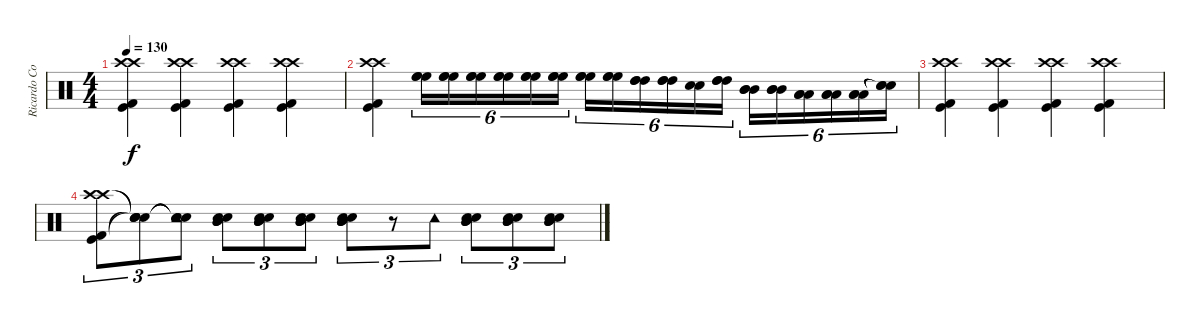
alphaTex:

\track ("Ricardo Confessori" "Ricardo Co") {instrument percussion}
\staff {score}
\articulation defaults
\ts (4 4)
\tempo 130
\clef neutral
\ks c
("Crash high (hit)" "Crash high (hit)" "Kick (hit)" "Kick (hit) 2").4{dy f} ("Crash high (hit)" "Crash high (hit)" "Kick (hit)" "Kick (hit) 2").4 ("Crash high (hit)" "Crash high (hit)" "Kick (hit)" "Kick (hit) 2").4 ("Crash high (hit)" "Crash high (hit)" "Kick (hit)" "Kick (hit) 2").4 |
("Crash high (hit)" "Crash high (hit)" "Kick (hit) 2" "Kick (hit)").4 ("High Floor Tom (hit)" "High Floor Tom (hit)" "High Floor Tom (hit)").16{tu (6 4)} ("High Floor Tom (hit)" "High Floor Tom (hit)" "High Floor Tom (hit)").16{tu (6 4)} ("High Floor Tom (hit)" "High Floor Tom (hit)" "High Floor Tom (hit)").16{tu (6 4)} ("High Floor Tom (hit)" "High Floor Tom (hit)" "High Floor Tom (hit)").16{tu (6 4)} ("High Floor Tom (hit)" "High Floor Tom (hit)" "High Floor Tom (hit)").16{tu (6 4)} ("High Floor Tom (hit)" "High Floor Tom (hit)" "High Floor Tom (hit)").16{tu (6 4)} ("High Floor Tom (hit)" "High Floor Tom (hit)" "High Floor Tom (hit)").16{tu (6 4)} ("High Floor Tom (hit)" "High Floor Tom (hit)" "High Floor Tom (hit)").16{tu (6 4)} ("High Tom (hit)" "High Tom (hit)" "High Tom (hit)").16{tu (6 4)} ("High Tom (hit)" "High Tom (hit)" "High Tom (hit)").16{tu (6 4)} ("Electric Snare (hit)" "Snare (hit) 2").16{tu (6 4)} ("High Tom (hit)" "High Tom (hit)" "High Tom (hit)").16{tu (6 4)} ("Mid Tom (hit)" "Mid Tom (hit)" "Mid Tom (hit)").16{tu (6 4)} ("Mid Tom (hit)" "Mid Tom (hit)" "Mid Tom (hit)").16{tu (6 4)} ("Low Tom (hit)" "Low Tom (hit)" "Low Tom (hit)").16{tu (6 4)} ("Low Tom (hit)" "Low Tom (hit)" "Low Tom (hit)").16{tu (6 4)} ("Low Tom (hit)" "Low Tom (hit)" "Low Tom (hit)").16{tu (6 4)} ("Snare (hit)"{t} "Snare (hit)"{t} "Snare (hit)"{t}).16{tu (6 4)} |
("Crash high (hit)" "Crash high (hit)" "Kick (hit)" "Kick (hit) 2").4 ("Crash high (hit)" "Crash high (hit)" "Kick (hit)" "Kick (hit) 2").4 ("Crash high (hit)" "Crash high (hit)" "Kick (hit)" "Kick (hit) 2").4 ("Crash high (hit)" "Crash high (hit)" "Kick (hit)" "Kick (hit) 2").4 |
("Crash high (hit)" "Crash high (hit)" "Kick (hit)" "Kick (hit) 2").8{tu (3 2)} ("Snare (hit)"{t} "Snare (hit)"{t} "Snare (hit)"{t} "Snare (hit)"{t}).8{tu (3 2)} ("Snare (hit)"{t} "Snare (hit)"{t} "Tambourine (hit)" "Snare (hit)"{t} "Tambourine (hit)").8{tu (3 2)} ("Electric Snare (hit)" "Snare (hit) 2" "Mid Tom (hit)" "Mid Tom (hit)" "Mid Tom (hit)").8{tu (3 2)} ("Electric Snare (hit)" "Snare (hit) 2" "Mid Tom (hit)" "Mid Tom (hit)" "Mid Tom (hit)").8{tu (3 2)} ("Electric Snare (hit)" "Snare (hit) 2" "Mid Tom (hit)" "Mid Tom (hit)" "Mid Tom (hit)").8{tu (3 2)} ("Electric Snare (hit)" "Snare (hit) 2" "Mid Tom (hit)" "Mid Tom (hit)" "Mid Tom (hit)").8{tu (3 2)} r.8{tu (3 2)} "Tambourine (hit)".8{tu (3 2)} ("Electric Snare (hit)" "Snare (hit) 2" "Mid Tom (hit)" "Mid Tom (hit)" "Mid Tom (hit)").8{tu (3 2)} ("Electric Snare (hit)" "Snare (hit) 2" "Mid Tom (hit)" "Mid Tom (hit)" "Mid Tom (hit)").8{tu (3 2)} ("Electric Snare (hit)" "Snare (hit) 2" "Mid Tom (hit)" "Mid Tom (hit)" "Mid Tom (hit)").8{tu (3 2)}
